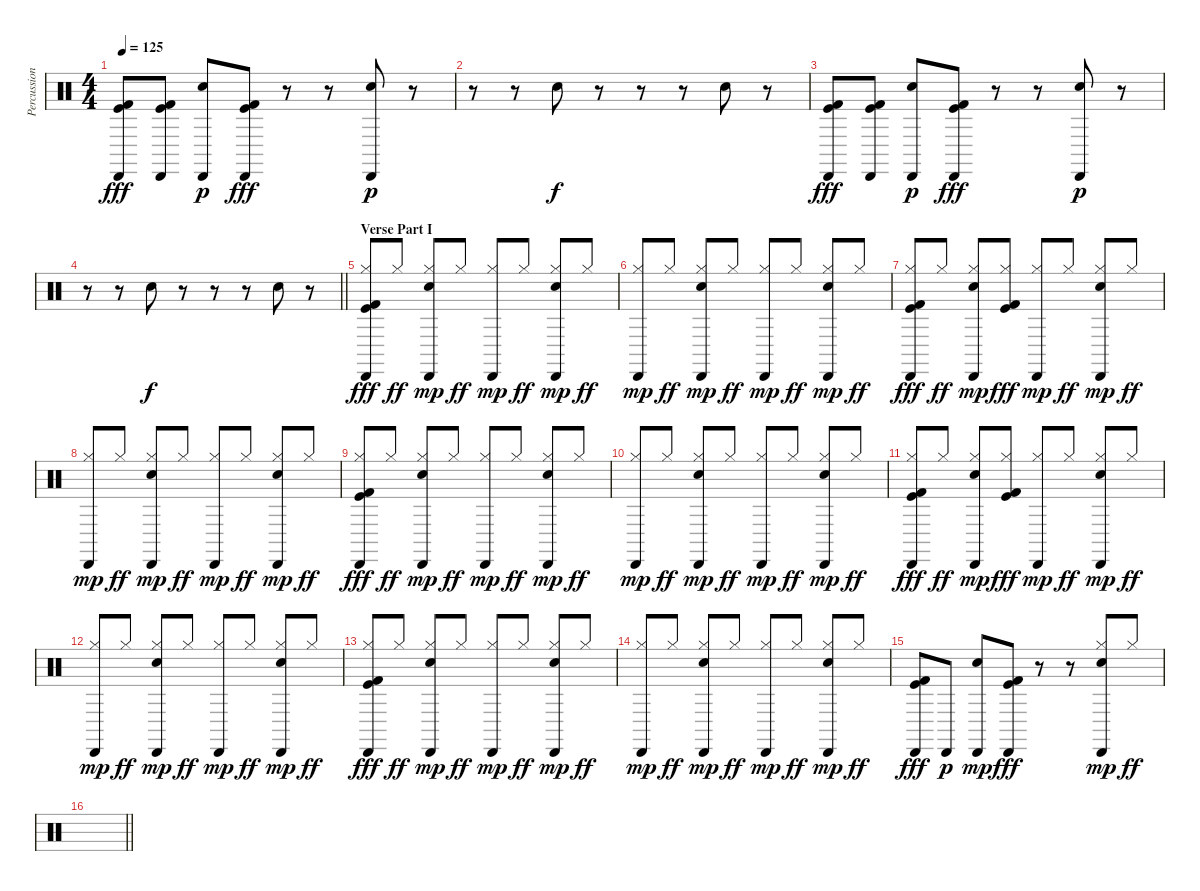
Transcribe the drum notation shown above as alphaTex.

\track ("Percussion" "Percussion") {instrument percussion}
\staff {score}
\articulation defaults
\ts (4 4)
\tempo 125
\clef neutral
\ks c
("Cabasa (hit)" "Kick (hit)" "Kick (hit) 2").8{dy fff} ("Cabasa (hit)" "Kick (hit)" "Kick (hit) 2").8 ("Cabasa (hit)" "Electric Snare (hit)").8{dy p} ("Cabasa (hit)" "Kick (hit)" "Kick (hit) 2").8{dy fff} r.8 r.8 ("Cabasa (hit)" "Electric Snare (hit)").8{dy p} r.8 |
r.8 r.8 "Electric Snare (hit)".8{dy f} r.8 r.8 r.8 "Electric Snare (hit)".8 r.8 |
("Cabasa (hit)" "Kick (hit)" "Kick (hit) 2").8{dy fff} ("Cabasa (hit)" "Kick (hit)" "Kick (hit) 2").8 ("Cabasa (hit)" "Electric Snare (hit)").8{dy p} ("Cabasa (hit)" "Kick (hit)" "Kick (hit) 2").8{dy fff} r.8 r.8 ("Cabasa (hit)" "Electric Snare (hit)").8{dy p} r.8 |
\barLineRight lightlight
r.8 r.8 "Electric Snare (hit)".8{dy f} r.8 r.8 r.8 "Electric Snare (hit)".8 r.8 |
\section ("" "Verse Part I")
("Hi-Hat (closed)" "Cabasa (hit)" "Kick (hit)" "Kick (hit) 2").8{dy fff} "Hi-Hat (closed)".8{dy ff} ("Hi-Hat (closed)" "Cabasa (hit)" "Electric Snare (hit)").8{dy mp} "Hi-Hat (closed)".8{dy ff} ("Hi-Hat (closed)" "Cabasa (hit)").8{dy mp} "Hi-Hat (closed)".8{dy ff} ("Hi-Hat (closed)" "Cabasa (hit)" "Electric Snare (hit)").8{dy mp} "Hi-Hat (closed)".8{dy ff} |
("Hi-Hat (closed)" "Cabasa (hit)").8{dy mp} "Hi-Hat (closed)".8{dy ff} ("Hi-Hat (closed)" "Cabasa (hit)" "Electric Snare (hit)").8{dy mp} "Hi-Hat (closed)".8{dy ff} ("Hi-Hat (closed)" "Cabasa (hit)").8{dy mp} "Hi-Hat (closed)".8{dy ff} ("Hi-Hat (closed)" "Cabasa (hit)" "Electric Snare (hit)").8{dy mp} "Hi-Hat (closed)".8{dy ff} |
("Hi-Hat (closed)" "Cabasa (hit)" "Kick (hit)" "Kick (hit) 2").8{dy fff} "Hi-Hat (closed)".8{dy ff} ("Hi-Hat (closed)" "Cabasa (hit)" "Electric Snare (hit)").8{dy mp} ("Hi-Hat (closed)" "Kick (hit)" "Kick (hit) 2").8{dy fff} ("Hi-Hat (closed)" "Cabasa (hit)").8{dy mp} "Hi-Hat (closed)".8{dy ff} ("Hi-Hat (closed)" "Cabasa (hit)" "Electric Snare (hit)").8{dy mp} "Hi-Hat (closed)".8{dy ff} |
("Hi-Hat (closed)" "Cabasa (hit)").8{dy mp} "Hi-Hat (closed)".8{dy ff} ("Hi-Hat (closed)" "Cabasa (hit)" "Electric Snare (hit)").8{dy mp} "Hi-Hat (closed)".8{dy ff} ("Hi-Hat (closed)" "Cabasa (hit)").8{dy mp} "Hi-Hat (closed)".8{dy ff} ("Hi-Hat (closed)" "Cabasa (hit)" "Electric Snare (hit)").8{dy mp} "Hi-Hat (closed)".8{dy ff} |
("Hi-Hat (closed)" "Cabasa (hit)" "Kick (hit)" "Kick (hit) 2").8{dy fff} "Hi-Hat (closed)".8{dy ff} ("Hi-Hat (closed)" "Cabasa (hit)" "Electric Snare (hit)").8{dy mp} "Hi-Hat (closed)".8{dy ff} ("Hi-Hat (closed)" "Cabasa (hit)").8{dy mp} "Hi-Hat (closed)".8{dy ff} ("Hi-Hat (closed)" "Cabasa (hit)" "Electric Snare (hit)").8{dy mp} "Hi-Hat (closed)".8{dy ff} |
("Hi-Hat (closed)" "Cabasa (hit)").8{dy mp} "Hi-Hat (closed)".8{dy ff} ("Hi-Hat (closed)" "Cabasa (hit)" "Electric Snare (hit)").8{dy mp} "Hi-Hat (closed)".8{dy ff} ("Hi-Hat (closed)" "Cabasa (hit)").8{dy mp} "Hi-Hat (closed)".8{dy ff} ("Hi-Hat (closed)" "Cabasa (hit)" "Electric Snare (hit)").8{dy mp} "Hi-Hat (closed)".8{dy ff} |
("Hi-Hat (closed)" "Cabasa (hit)" "Kick (hit)" "Kick (hit) 2").8{dy fff} "Hi-Hat (closed)".8{dy ff} ("Hi-Hat (closed)" "Cabasa (hit)" "Electric Snare (hit)").8{dy mp} ("Hi-Hat (closed)" "Kick (hit)" "Kick (hit) 2").8{dy fff} ("Hi-Hat (closed)" "Cabasa (hit)").8{dy mp} "Hi-Hat (closed)".8{dy ff} ("Hi-Hat (closed)" "Cabasa (hit)" "Electric Snare (hit)").8{dy mp} "Hi-Hat (closed)".8{dy ff} |
("Hi-Hat (closed)" "Cabasa (hit)").8{dy mp} "Hi-Hat (closed)".8{dy ff} ("Hi-Hat (closed)" "Cabasa (hit)" "Electric Snare (hit)").8{dy mp} "Hi-Hat (closed)".8{dy ff} ("Hi-Hat (closed)" "Cabasa (hit)").8{dy mp} "Hi-Hat (closed)".8{dy ff} ("Hi-Hat (closed)" "Cabasa (hit)" "Electric Snare (hit)").8{dy mp} "Hi-Hat (closed)".8{dy ff} |
("Hi-Hat (closed)" "Cabasa (hit)" "Kick (hit)" "Kick (hit) 2").8{dy fff} "Hi-Hat (closed)".8{dy ff} ("Hi-Hat (closed)" "Cabasa (hit)" "Electric Snare (hit)").8{dy mp} "Hi-Hat (closed)".8{dy ff} ("Hi-Hat (closed)" "Cabasa (hit)").8{dy mp} "Hi-Hat (closed)".8{dy ff} ("Hi-Hat (closed)" "Cabasa (hit)" "Electric Snare (hit)").8{dy mp} "Hi-Hat (closed)".8{dy ff} |
("Hi-Hat (closed)" "Cabasa (hit)").8{dy mp} "Hi-Hat (closed)".8{dy ff} ("Hi-Hat (closed)" "Cabasa (hit)" "Electric Snare (hit)").8{dy mp} "Hi-Hat (closed)".8{dy ff} ("Hi-Hat (closed)" "Cabasa (hit)").8{dy mp} "Hi-Hat (closed)".8{dy ff} ("Hi-Hat (closed)" "Cabasa (hit)" "Electric Snare (hit)").8{dy mp} "Hi-Hat (closed)".8{dy ff} |
("Cabasa (hit)" "Kick (hit)" "Kick (hit) 2").8{dy fff} "Cabasa (hit)".8{dy p} ("Cabasa (hit)" "Electric Snare (hit)").8{dy mp} ("Cabasa (hit)" "Kick (hit)" "Kick (hit) 2").8{dy fff} r.8 r.8 ("Hi-Hat (closed)" "Cabasa (hit)" "Electric Snare (hit)").8{dy mp} "Hi-Hat (closed)".8{dy ff} |
\barLineRight lightlight
